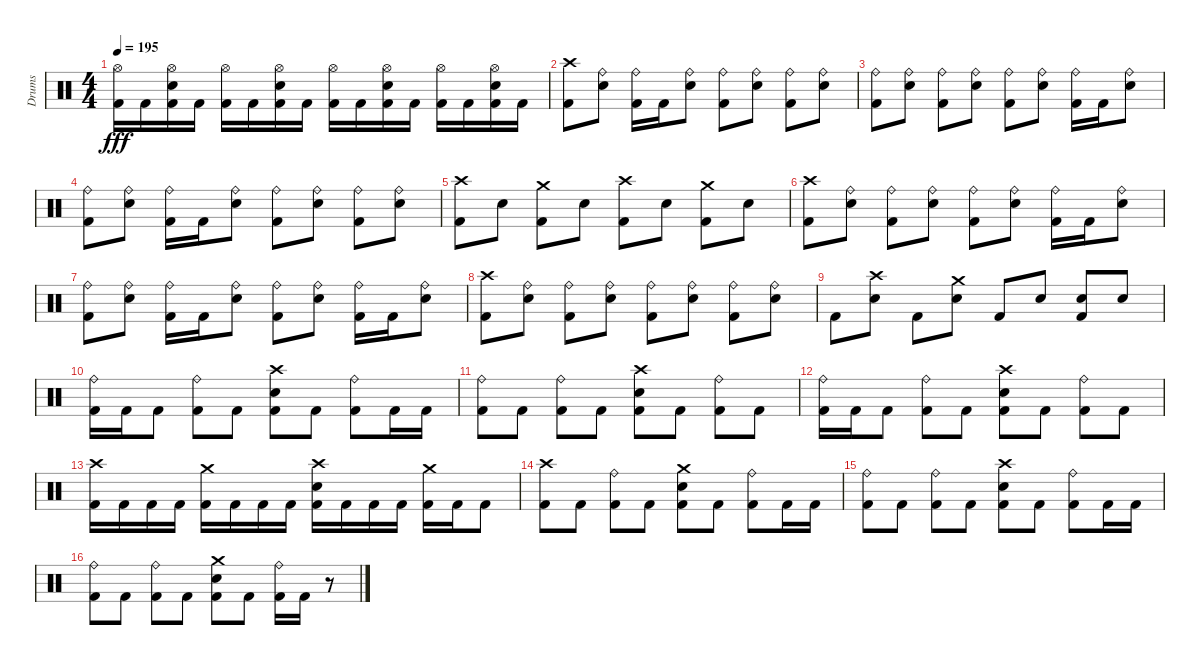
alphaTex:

\track ("Drums" "Drums") {instrument percussion}
\staff {score}
\articulation defaults
\ts (4 4)
\tempo 195
\clef neutral
\ks c
("Kick (hit) 2" "Hi-Hat (open)").16{dy fff} "Kick (hit) 2".16 ("Metronome (bell)" "Kick (hit) 2" "Hi-Hat (open)").16 "Kick (hit) 2".16 ("Kick (hit) 2" "Hi-Hat (open)").16 "Kick (hit) 2".16 ("Metronome (bell)" "Kick (hit) 2" "Hi-Hat (open)").16 "Kick (hit) 2".16 ("Kick (hit) 2" "Hi-Hat (open)").16 "Kick (hit) 2".16 ("Metronome (bell)" "Kick (hit) 2" "Hi-Hat (open)").16 "Kick (hit) 2".16 ("Kick (hit) 2" "Hi-Hat (open)").16 "Kick (hit) 2".16 ("Metronome (bell)" "Kick (hit) 2" "Hi-Hat (open)").16 "Kick (hit) 2".16 |
("Kick (hit) 2" "Crash high (hit)").8 ("Metronome (bell)" "Ride (bell)").8 ("Kick (hit) 2" "Ride (bell)").16 "Kick (hit) 2".16 ("Metronome (bell)" "Ride (bell)").8 ("Kick (hit) 2" "Ride (bell)").8 ("Metronome (bell)" "Ride (bell)").8 ("Kick (hit) 2" "Ride (bell)").8 ("Metronome (bell)" "Ride (bell)").8 |
("Kick (hit) 2" "Ride (bell)").8 ("Metronome (bell)" "Ride (bell)").8 ("Kick (hit) 2" "Ride (bell)").8 ("Metronome (bell)" "Ride (bell)").8 ("Kick (hit) 2" "Ride (bell)").8 ("Metronome (bell)" "Ride (bell)").8 ("Kick (hit) 2" "Ride (bell)").16 "Kick (hit) 2".16 ("Metronome (bell)" "Ride (bell)").8 |
("Kick (hit) 2" "Ride (bell)").8 ("Metronome (bell)" "Ride (bell)").8 ("Kick (hit) 2" "Ride (bell)").16 "Kick (hit) 2".16 ("Metronome (bell)" "Ride (bell)").8 ("Kick (hit) 2" "Ride (bell)").8 ("Metronome (bell)" "Ride (bell)").8 ("Kick (hit) 2" "Ride (bell)").8 ("Metronome (bell)" "Ride (bell)").8 |
("Kick (hit) 2" "Crash high (hit)").8 "Metronome (bell)".8 ("Kick (hit) 2" "Crash medium (hit)").8 "Metronome (bell)".8 ("Kick (hit) 2" "Crash high (hit)").8 "Metronome (bell)".8 ("Kick (hit) 2" "Crash medium (hit)").8 "Metronome (bell)".8 |
("Kick (hit) 2" "Crash high (hit)").8 ("Metronome (bell)" "Ride (bell)").8 ("Kick (hit) 2" "Ride (bell)").8 ("Metronome (bell)" "Ride (bell)").8 ("Kick (hit) 2" "Ride (bell)").8 ("Metronome (bell)" "Ride (bell)").8 ("Kick (hit) 2" "Ride (bell)").16 "Kick (hit) 2".16 ("Metronome (bell)" "Ride (bell)").8 |
("Kick (hit) 2" "Ride (bell)").8 ("Metronome (bell)" "Ride (bell)").8 ("Kick (hit) 2" "Ride (bell)").16 "Kick (hit) 2".16 ("Metronome (bell)" "Ride (bell)").8 ("Kick (hit) 2" "Ride (bell)").8 ("Metronome (bell)" "Ride (bell)").8 ("Kick (hit) 2" "Ride (bell)").16 "Kick (hit) 2".16 ("Metronome (bell)" "Ride (bell)").8 |
("Kick (hit) 2" "Crash high (hit)").8 ("Metronome (bell)" "Ride (bell)").8 ("Kick (hit) 2" "Ride (bell)").8 ("Metronome (bell)" "Ride (bell)").8 ("Kick (hit) 2" "Ride (bell)").8 ("Metronome (bell)" "Ride (bell)").8 ("Kick (hit) 2" "Ride (bell)").8 ("Metronome (bell)" "Ride (bell)").8 |
"Kick (hit) 2".8 ("Metronome (bell)" "Crash high (hit)").8 "Kick (hit) 2".8 ("Metronome (bell)" "Crash medium (hit)").8 "Kick (hit) 2".8 "Metronome (bell)".8 ("Metronome (bell)" "Kick (hit) 2").8 "Metronome (bell)".8 |
("Kick (hit) 2" "Ride (bell)").16 "Kick (hit) 2".16 "Kick (hit) 2".8 ("Kick (hit) 2" "Ride (bell)").8 "Kick (hit) 2".8 ("Metronome (bell)" "Kick (hit) 2" "Crash high (hit)").8 "Kick (hit) 2".8 ("Kick (hit) 2" "Ride (bell)").8 "Kick (hit) 2".16 "Kick (hit) 2".16 |
("Kick (hit) 2" "Ride (bell)").8 "Kick (hit) 2".8 ("Kick (hit) 2" "Ride (bell)").8 "Kick (hit) 2".8 ("Metronome (bell)" "Kick (hit) 2" "Crash high (hit)").8 "Kick (hit) 2".8 ("Kick (hit) 2" "Ride (bell)").8 "Kick (hit) 2".8 |
("Kick (hit) 2" "Ride (bell)").16 "Kick (hit) 2".16 "Kick (hit) 2".8 ("Kick (hit) 2" "Ride (bell)").8 "Kick (hit) 2".8 ("Metronome (bell)" "Kick (hit) 2" "Crash high (hit)").8 "Kick (hit) 2".8 ("Kick (hit) 2" "Ride (bell)").8 "Kick (hit) 2".8 |
("Kick (hit) 2" "Crash high (hit)").16 "Kick (hit) 2".16 "Kick (hit) 2".16 "Kick (hit) 2".16 ("Kick (hit) 2" "Crash medium (hit)").16 "Kick (hit) 2".16 "Kick (hit) 2".16 "Kick (hit) 2".16 ("Metronome (bell)" "Kick (hit) 2" "Crash high (hit)").16 "Kick (hit) 2".16 "Kick (hit) 2".16 "Kick (hit) 2".16 ("Kick (hit) 2" "Crash medium (hit)").16 "Kick (hit) 2".16 "Kick (hit) 2".8 |
("Kick (hit) 2" "Crash high (hit)").8 "Kick (hit) 2".8 ("Kick (hit) 2" "Ride (bell)").8 "Kick (hit) 2".8 ("Metronome (bell)" "Kick (hit) 2" "Crash medium (hit)").8 "Kick (hit) 2".8 ("Kick (hit) 2" "Ride (bell)").8 "Kick (hit) 2".16 "Kick (hit) 2".16 |
("Kick (hit) 2" "Ride (bell)").8 "Kick (hit) 2".8 ("Kick (hit) 2" "Ride (bell)").8 "Kick (hit) 2".8 ("Metronome (bell)" "Kick (hit) 2" "Crash high (hit)").8 "Kick (hit) 2".8 ("Kick (hit) 2" "Ride (bell)").8 "Kick (hit) 2".16 "Kick (hit) 2".16 |
("Kick (hit) 2" "Ride (bell)").8 "Kick (hit) 2".8 ("Kick (hit) 2" "Ride (bell)").8 "Kick (hit) 2".8 ("Metronome (bell)" "Kick (hit) 2" "Crash medium (hit)").8 "Kick (hit) 2".8 ("Kick (hit) 2" "Ride (bell)").16 "Kick (hit) 2".16 r.8
